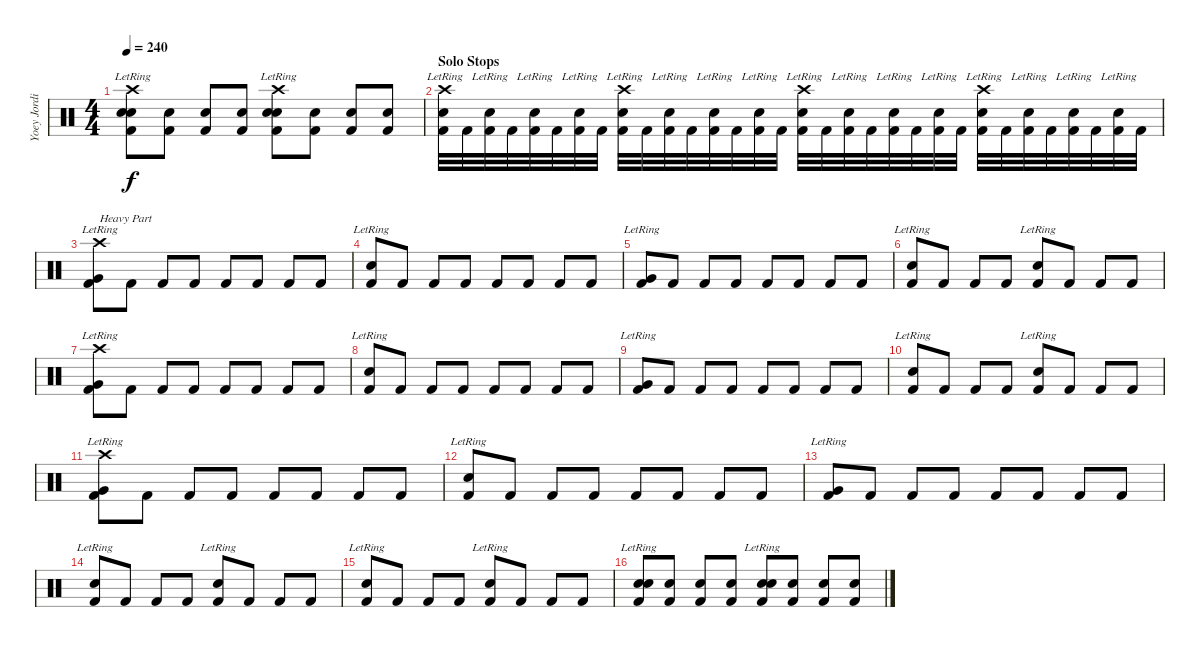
\track ("Yoey Jordison" "Yoey Jordi") {instrument percussion}
\staff {score}
\articulation defaults
\ts (4 4)
\tempo 240
\clef neutral
\ks c
("Crash high (hit)" "Snare (hit) 2" "Kick (hit) 2" "Electric Snare (hit)"{lr}).8{dy f} ("Snare (hit) 2" "Kick (hit) 2").8 ("Snare (hit) 2" "Kick (hit) 2").8 ("Snare (hit) 2" "Kick (hit) 2").8 ("Crash high (hit)" "Snare (hit) 2" "Kick (hit) 2" "Electric Snare (hit)"{lr}).8 ("Snare (hit) 2" "Kick (hit) 2").8 ("Snare (hit) 2" "Kick (hit) 2").8 ("Snare (hit) 2" "Kick (hit) 2").8 |
\section ("" "Solo Stops")
("Crash high (hit)" "Kick (hit) 2" "Electric Snare (hit)"{lr}).32 "Kick (hit) 2".32 ("Kick (hit) 2" "Electric Snare (hit)"{lr}).32 "Kick (hit) 2".32 ("Kick (hit) 2" "Electric Snare (hit)"{lr}).32 "Kick (hit) 2".32 ("Kick (hit) 2" "Electric Snare (hit)"{lr}).32 "Kick (hit) 2".32 ("Crash high (hit)" "Kick (hit) 2" "Electric Snare (hit)"{lr}).32 "Kick (hit) 2".32 ("Kick (hit) 2" "Electric Snare (hit)"{lr}).32 "Kick (hit) 2".32 ("Kick (hit) 2" "Electric Snare (hit)"{lr}).32 "Kick (hit) 2".32 ("Kick (hit) 2" "Electric Snare (hit)"{lr}).32 "Kick (hit) 2".32 ("Crash high (hit)" "Kick (hit) 2" "Electric Snare (hit)"{lr}).32 "Kick (hit) 2".32 ("Kick (hit) 2" "Electric Snare (hit)"{lr}).32 "Kick (hit) 2".32 ("Kick (hit) 2" "Electric Snare (hit)"{lr}).32 "Kick (hit) 2".32 ("Kick (hit) 2" "Electric Snare (hit)"{lr}).32 "Kick (hit) 2".32 ("Crash high (hit)" "Kick (hit) 2" "Electric Snare (hit)"{lr}).32 "Kick (hit) 2".32 ("Kick (hit) 2" "Electric Snare (hit)"{lr}).32 "Kick (hit) 2".32 ("Kick (hit) 2" "Electric Snare (hit)"{lr}).32 "Kick (hit) 2".32 ("Kick (hit) 2" "Electric Snare (hit)"{lr}).32 "Kick (hit) 2".32 |
("Crash high (hit)" "Kick (hit) 2" "Very Low Tom (hit)"{lr}).8{txt "Heavy Part"} "Kick (hit) 2".8 "Kick (hit) 2".8 "Kick (hit) 2".8 "Kick (hit) 2".8 "Kick (hit) 2".8 "Kick (hit) 2".8 "Kick (hit) 2".8 |
("Kick (hit) 2" "Snare (hit) 2"{lr}).8 "Kick (hit) 2".8 "Kick (hit) 2".8 "Kick (hit) 2".8 "Kick (hit) 2".8 "Kick (hit) 2".8 "Kick (hit) 2".8 "Kick (hit) 2".8 |
("Kick (hit) 2" "Very Low Tom (hit)"{lr}).8 "Kick (hit) 2".8 "Kick (hit) 2".8 "Kick (hit) 2".8 "Kick (hit) 2".8 "Kick (hit) 2".8 "Kick (hit) 2".8 "Kick (hit) 2".8 |
("Kick (hit) 2" "Snare (hit) 2"{lr}).8 "Kick (hit) 2".8 "Kick (hit) 2".8 "Kick (hit) 2".8 ("Kick (hit) 2" "Snare (hit) 2"{lr}).8 "Kick (hit) 2".8 "Kick (hit) 2".8 "Kick (hit) 2".8 |
("Crash high (hit)" "Kick (hit) 2" "Very Low Tom (hit)"{lr}).8 "Kick (hit) 2".8 "Kick (hit) 2".8 "Kick (hit) 2".8 "Kick (hit) 2".8 "Kick (hit) 2".8 "Kick (hit) 2".8 "Kick (hit) 2".8 |
("Kick (hit) 2" "Snare (hit) 2"{lr}).8 "Kick (hit) 2".8 "Kick (hit) 2".8 "Kick (hit) 2".8 "Kick (hit) 2".8 "Kick (hit) 2".8 "Kick (hit) 2".8 "Kick (hit) 2".8 |
("Kick (hit) 2" "Very Low Tom (hit)"{lr}).8 "Kick (hit) 2".8 "Kick (hit) 2".8 "Kick (hit) 2".8 "Kick (hit) 2".8 "Kick (hit) 2".8 "Kick (hit) 2".8 "Kick (hit) 2".8 |
("Kick (hit) 2" "Snare (hit) 2"{lr}).8 "Kick (hit) 2".8 "Kick (hit) 2".8 "Kick (hit) 2".8 ("Kick (hit) 2" "Snare (hit) 2"{lr}).8 "Kick (hit) 2".8 "Kick (hit) 2".8 "Kick (hit) 2".8 |
("Crash high (hit)" "Kick (hit) 2" "Very Low Tom (hit)"{lr}).8 "Kick (hit) 2".8 "Kick (hit) 2".8 "Kick (hit) 2".8 "Kick (hit) 2".8 "Kick (hit) 2".8 "Kick (hit) 2".8 "Kick (hit) 2".8 |
("Kick (hit) 2" "Snare (hit) 2"{lr}).8 "Kick (hit) 2".8 "Kick (hit) 2".8 "Kick (hit) 2".8 "Kick (hit) 2".8 "Kick (hit) 2".8 "Kick (hit) 2".8 "Kick (hit) 2".8 |
("Kick (hit) 2" "Very Low Tom (hit)"{lr}).8 "Kick (hit) 2".8 "Kick (hit) 2".8 "Kick (hit) 2".8 "Kick (hit) 2".8 "Kick (hit) 2".8 "Kick (hit) 2".8 "Kick (hit) 2".8 |
("Kick (hit) 2" "Snare (hit) 2"{lr}).8 "Kick (hit) 2".8 "Kick (hit) 2".8 "Kick (hit) 2".8 ("Kick (hit) 2" "Snare (hit) 2"{lr}).8 "Kick (hit) 2".8 "Kick (hit) 2".8 "Kick (hit) 2".8 |
("Kick (hit) 2" "Electric Snare (hit)"{lr}).8 "Kick (hit) 2".8 "Kick (hit) 2".8 "Kick (hit) 2".8 ("Kick (hit) 2" "Electric Snare (hit)"{lr}).8 "Kick (hit) 2".8 "Kick (hit) 2".8 "Kick (hit) 2".8 |
("Snare (hit) 2" "Kick (hit) 2" "Electric Snare (hit)"{lr}).8 ("Snare (hit) 2" "Kick (hit) 2").8 ("Snare (hit) 2" "Kick (hit) 2").8 ("Snare (hit) 2" "Kick (hit) 2").8 ("Snare (hit) 2" "Kick (hit) 2" "Electric Snare (hit)"{lr}).8 ("Snare (hit) 2" "Kick (hit) 2").8 ("Snare (hit) 2" "Kick (hit) 2").8 ("Snare (hit) 2" "Kick (hit) 2").8
